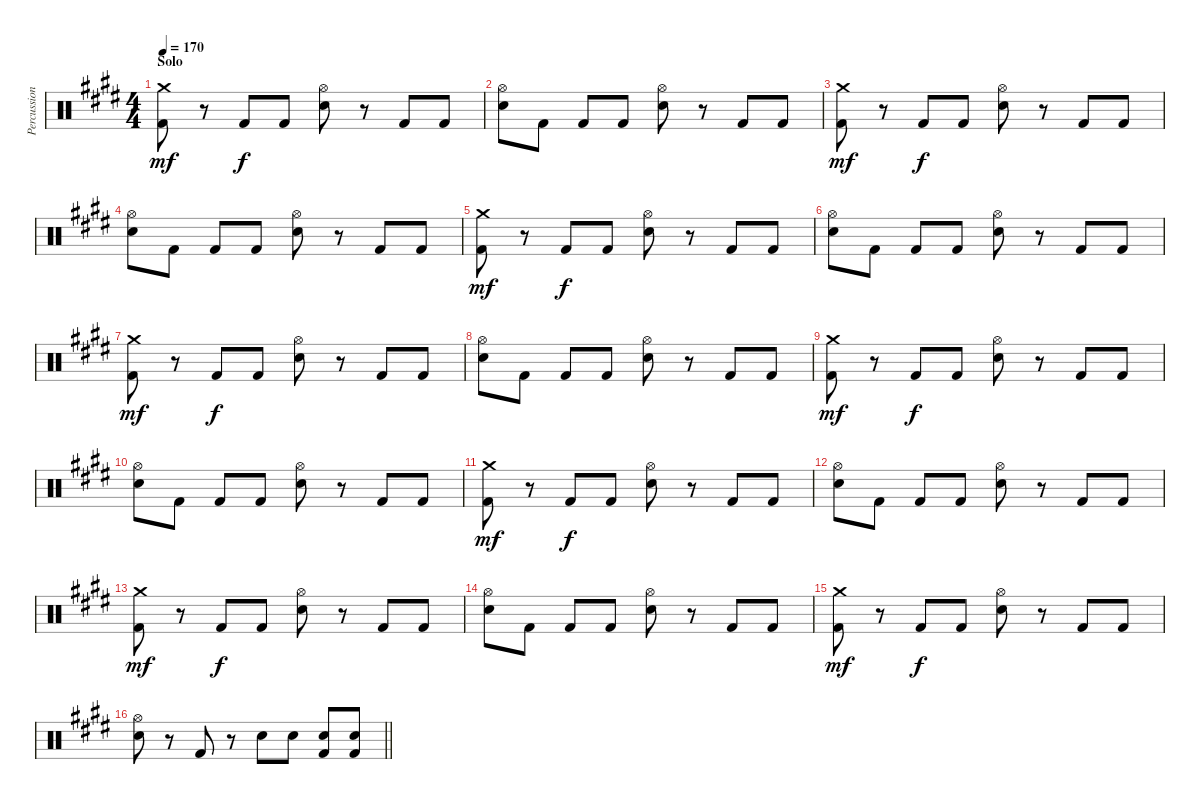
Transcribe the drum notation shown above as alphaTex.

\track ("Percussion" "Percussion") {instrument percussion}
\staff {score}
\articulation defaults
\ts (4 4)
\section ("" "Solo")
\tempo 170
\clef neutral
\ks c#minor
("Crash medium (hit)" "Kick (hit) 2").8{dy mf} r.8 "Kick (hit) 2".8{dy f} "Kick (hit) 2".8 ("Hi-Hat (open)" "Snare (hit) 2").8 r.8 "Kick (hit) 2".8 "Kick (hit) 2".8 |
("Hi-Hat (open)" "Snare (hit) 2").8 "Kick (hit) 2".8 "Kick (hit) 2".8 "Kick (hit) 2".8 ("Hi-Hat (open)" "Snare (hit) 2").8 r.8 "Kick (hit) 2".8 "Kick (hit) 2".8 |
("Crash medium (hit)" "Kick (hit) 2").8{dy mf} r.8 "Kick (hit) 2".8{dy f} "Kick (hit) 2".8 ("Hi-Hat (open)" "Snare (hit) 2").8 r.8 "Kick (hit) 2".8 "Kick (hit) 2".8 |
("Hi-Hat (open)" "Snare (hit) 2").8 "Kick (hit) 2".8 "Kick (hit) 2".8 "Kick (hit) 2".8 ("Hi-Hat (open)" "Snare (hit) 2").8 r.8 "Kick (hit) 2".8 "Kick (hit) 2".8 |
("Crash medium (hit)" "Kick (hit) 2").8{dy mf} r.8 "Kick (hit) 2".8{dy f} "Kick (hit) 2".8 ("Hi-Hat (open)" "Snare (hit) 2").8 r.8 "Kick (hit) 2".8 "Kick (hit) 2".8 |
("Hi-Hat (open)" "Snare (hit) 2").8 "Kick (hit) 2".8 "Kick (hit) 2".8 "Kick (hit) 2".8 ("Hi-Hat (open)" "Snare (hit) 2").8 r.8 "Kick (hit) 2".8 "Kick (hit) 2".8 |
("Crash medium (hit)" "Kick (hit) 2").8{dy mf} r.8 "Kick (hit) 2".8{dy f} "Kick (hit) 2".8 ("Hi-Hat (open)" "Snare (hit) 2").8 r.8 "Kick (hit) 2".8 "Kick (hit) 2".8 |
("Hi-Hat (open)" "Snare (hit) 2").8 "Kick (hit) 2".8 "Kick (hit) 2".8 "Kick (hit) 2".8 ("Hi-Hat (open)" "Snare (hit) 2").8 r.8 "Kick (hit) 2".8 "Kick (hit) 2".8 |
("Crash medium (hit)" "Kick (hit) 2").8{dy mf} r.8 "Kick (hit) 2".8{dy f} "Kick (hit) 2".8 ("Hi-Hat (open)" "Snare (hit) 2").8 r.8 "Kick (hit) 2".8 "Kick (hit) 2".8 |
("Hi-Hat (open)" "Snare (hit) 2").8 "Kick (hit) 2".8 "Kick (hit) 2".8 "Kick (hit) 2".8 ("Hi-Hat (open)" "Snare (hit) 2").8 r.8 "Kick (hit) 2".8 "Kick (hit) 2".8 |
("Crash medium (hit)" "Kick (hit) 2").8{dy mf} r.8 "Kick (hit) 2".8{dy f} "Kick (hit) 2".8 ("Hi-Hat (open)" "Snare (hit) 2").8 r.8 "Kick (hit) 2".8 "Kick (hit) 2".8 |
("Hi-Hat (open)" "Snare (hit) 2").8 "Kick (hit) 2".8 "Kick (hit) 2".8 "Kick (hit) 2".8 ("Hi-Hat (open)" "Snare (hit) 2").8 r.8 "Kick (hit) 2".8 "Kick (hit) 2".8 |
("Crash medium (hit)" "Kick (hit) 2").8{dy mf} r.8 "Kick (hit) 2".8{dy f} "Kick (hit) 2".8 ("Hi-Hat (open)" "Snare (hit) 2").8 r.8 "Kick (hit) 2".8 "Kick (hit) 2".8 |
("Hi-Hat (open)" "Snare (hit) 2").8 "Kick (hit) 2".8 "Kick (hit) 2".8 "Kick (hit) 2".8 ("Hi-Hat (open)" "Snare (hit) 2").8 r.8 "Kick (hit) 2".8 "Kick (hit) 2".8 |
("Crash medium (hit)" "Kick (hit) 2").8{dy mf} r.8 "Kick (hit) 2".8{dy f} "Kick (hit) 2".8 ("Hi-Hat (open)" "Snare (hit) 2").8 r.8 "Kick (hit) 2".8 "Kick (hit) 2".8 |
\barLineRight lightlight
("Hi-Hat (open)" "Snare (hit) 2").8 r.8 "Kick (hit) 2".8 r.8 "Snare (hit) 2".8 "Snare (hit) 2".8 ("Snare (hit) 2" "Kick (hit) 2").8 ("Snare (hit) 2" "Kick (hit) 2").8
